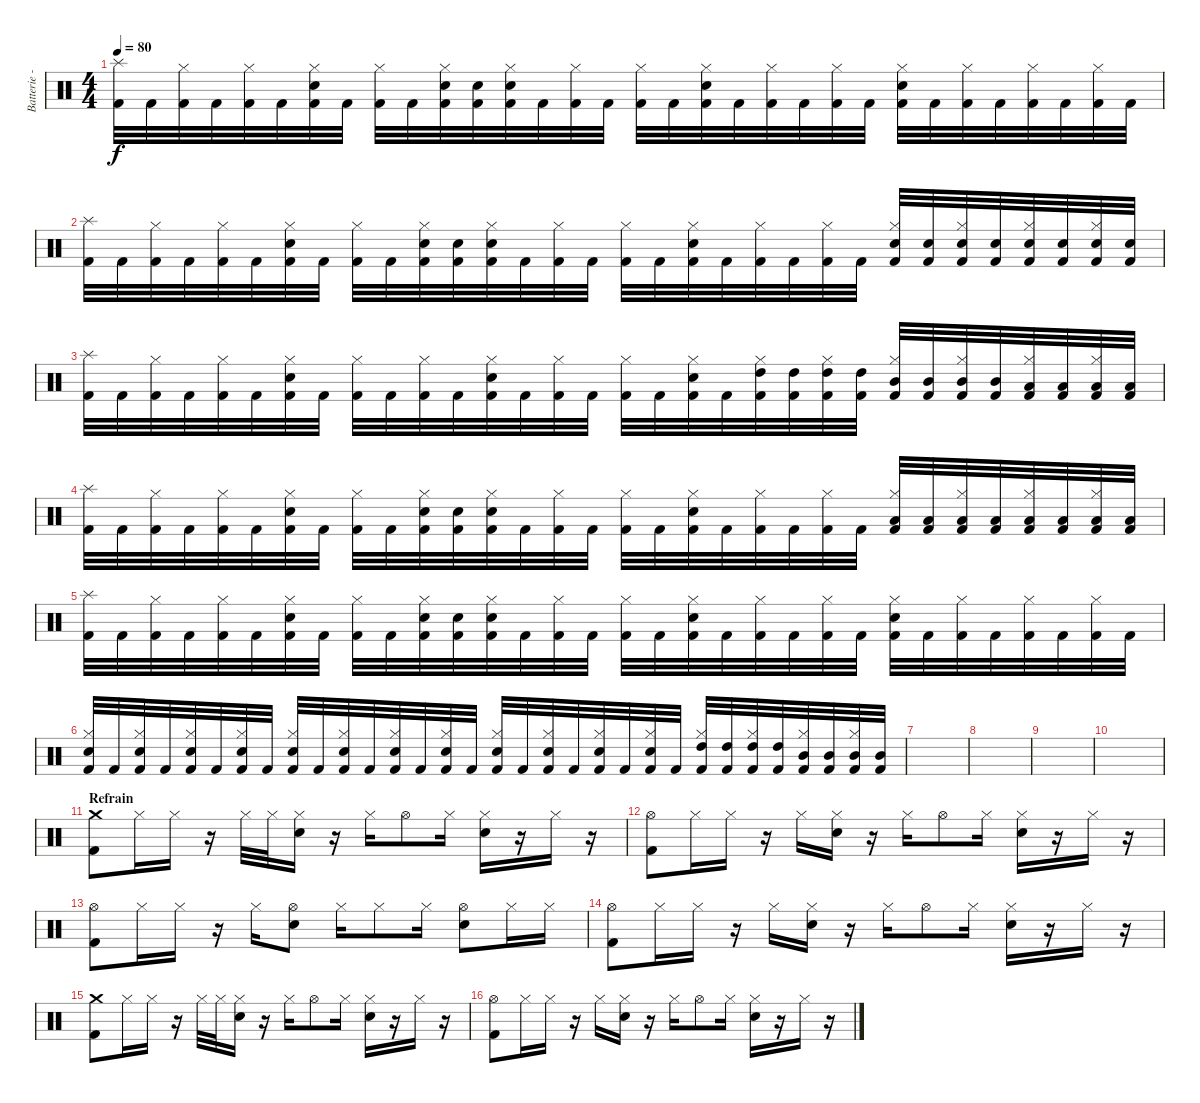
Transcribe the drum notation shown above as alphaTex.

\track ("Batterie - François" "Batterie -") {instrument percussion}
\staff {score}
\articulation defaults
\ts (4 4)
\tempo 80
\clef neutral
\ks c
("Splash (hit)" "Kick (hit) 2").32{dy f} "Kick (hit) 2".32 ("Hi-Hat (closed)" "Kick (hit) 2").32 "Kick (hit) 2".32 ("Hi-Hat (closed)" "Kick (hit) 2").32 "Kick (hit) 2".32 ("Hi-Hat (closed)" "Electric Snare (hit)" "Kick (hit) 2").32 "Kick (hit) 2".32 ("Hi-Hat (closed)" "Kick (hit) 2").32 "Kick (hit) 2".32 ("Hi-Hat (closed)" "Electric Snare (hit)" "Kick (hit) 2").32 ("Electric Snare (hit)" "Kick (hit) 2").32 ("Hi-Hat (closed)" "Electric Snare (hit)" "Kick (hit) 2").32 "Kick (hit) 2".32 ("Hi-Hat (closed)" "Kick (hit) 2").32 "Kick (hit) 2".32 ("Hi-Hat (closed)" "Kick (hit) 2").32 "Kick (hit) 2".32 ("Hi-Hat (closed)" "Electric Snare (hit)" "Kick (hit) 2").32 "Kick (hit) 2".32 ("Hi-Hat (closed)" "Kick (hit) 2").32 "Kick (hit) 2".32 ("Hi-Hat (closed)" "Kick (hit) 2").32 "Kick (hit) 2".32 ("Hi-Hat (closed)" "Electric Snare (hit)" "Kick (hit) 2").32 "Kick (hit) 2".32 ("Hi-Hat (closed)" "Kick (hit) 2").32 "Kick (hit) 2".32 ("Hi-Hat (closed)" "Kick (hit) 2").32 "Kick (hit) 2".32 ("Hi-Hat (closed)" "Kick (hit) 2").32 "Kick (hit) 2".32 |
("Splash (hit)" "Kick (hit) 2").32 "Kick (hit) 2".32 ("Hi-Hat (closed)" "Kick (hit) 2").32 "Kick (hit) 2".32 ("Hi-Hat (closed)" "Kick (hit) 2").32 "Kick (hit) 2".32 ("Hi-Hat (closed)" "Electric Snare (hit)" "Kick (hit) 2").32 "Kick (hit) 2".32 ("Hi-Hat (closed)" "Kick (hit) 2").32 "Kick (hit) 2".32 ("Hi-Hat (closed)" "Electric Snare (hit)" "Kick (hit) 2").32 ("Electric Snare (hit)" "Kick (hit) 2").32 ("Hi-Hat (closed)" "Electric Snare (hit)" "Kick (hit) 2").32 "Kick (hit) 2".32 ("Hi-Hat (closed)" "Kick (hit) 2").32 "Kick (hit) 2".32 ("Hi-Hat (closed)" "Kick (hit) 2").32 "Kick (hit) 2".32 ("Hi-Hat (closed)" "Electric Snare (hit)" "Kick (hit) 2").32 "Kick (hit) 2".32 ("Hi-Hat (closed)" "Kick (hit) 2").32 "Kick (hit) 2".32 ("Hi-Hat (closed)" "Kick (hit) 2").32 "Kick (hit) 2".32 ("Hi-Hat (closed)" "Electric Snare (hit)" "Kick (hit) 2").32 ("Electric Snare (hit)" "Kick (hit) 2").32 ("Hi-Hat (closed)" "Electric Snare (hit)" "Kick (hit) 2").32 ("Electric Snare (hit)" "Kick (hit) 2").32 ("Hi-Hat (closed)" "Electric Snare (hit)" "Kick (hit) 2").32 ("Electric Snare (hit)" "Kick (hit) 2").32 ("Hi-Hat (closed)" "Electric Snare (hit)" "Kick (hit) 2").32 ("Electric Snare (hit)" "Kick (hit) 2").32 |
("Splash (hit)" "Kick (hit) 2").32 "Kick (hit) 2".32 ("Hi-Hat (closed)" "Kick (hit) 2").32 "Kick (hit) 2".32 ("Hi-Hat (closed)" "Kick (hit) 2").32 "Kick (hit) 2".32 ("Hi-Hat (closed)" "Electric Snare (hit)" "Kick (hit) 2").32 "Kick (hit) 2".32 ("Hi-Hat (closed)" "Kick (hit) 2").32 "Kick (hit) 2".32 ("Hi-Hat (closed)" "Kick (hit) 2").32 "Kick (hit) 2".32 ("Hi-Hat (closed)" "Electric Snare (hit)" "Kick (hit) 2").32 "Kick (hit) 2".32 ("Hi-Hat (closed)" "Kick (hit) 2").32 "Kick (hit) 2".32 ("Hi-Hat (closed)" "Kick (hit) 2").32 "Kick (hit) 2".32 ("Hi-Hat (closed)" "Electric Snare (hit)" "Kick (hit) 2").32 "Kick (hit) 2".32 ("Hi-Hat (closed)" "High Tom (hit)" "Kick (hit) 2").32 ("High Tom (hit)" "Kick (hit) 2").32 ("Hi-Hat (closed)" "High Tom (hit)" "Kick (hit) 2").32 ("High Tom (hit)" "Kick (hit) 2").32 ("Hi-Hat (closed)" "Mid Tom (hit)" "Kick (hit) 2").32 ("Mid Tom (hit)" "Kick (hit) 2").32 ("Hi-Hat (closed)" "Mid Tom (hit)" "Kick (hit) 2").32 ("Mid Tom (hit)" "Kick (hit) 2").32 ("Hi-Hat (closed)" "Low Tom (hit)" "Kick (hit) 2").32 ("Low Tom (hit)" "Kick (hit) 2").32 ("Hi-Hat (closed)" "Low Tom (hit)" "Kick (hit) 2").32 ("Low Tom (hit)" "Kick (hit) 2").32 |
("Splash (hit)" "Kick (hit) 2").32 "Kick (hit) 2".32 ("Hi-Hat (closed)" "Kick (hit) 2").32 "Kick (hit) 2".32 ("Hi-Hat (closed)" "Kick (hit) 2").32 "Kick (hit) 2".32 ("Hi-Hat (closed)" "Electric Snare (hit)" "Kick (hit) 2").32 "Kick (hit) 2".32 ("Hi-Hat (closed)" "Kick (hit) 2").32 "Kick (hit) 2".32 ("Hi-Hat (closed)" "Electric Snare (hit)" "Kick (hit) 2").32 ("Electric Snare (hit)" "Kick (hit) 2").32 ("Hi-Hat (closed)" "Electric Snare (hit)" "Kick (hit) 2").32 "Kick (hit) 2".32 ("Hi-Hat (closed)" "Kick (hit) 2").32 "Kick (hit) 2".32 ("Hi-Hat (closed)" "Kick (hit) 2").32 "Kick (hit) 2".32 ("Hi-Hat (closed)" "Electric Snare (hit)" "Kick (hit) 2").32 "Kick (hit) 2".32 ("Hi-Hat (closed)" "Kick (hit) 2").32 "Kick (hit) 2".32 ("Hi-Hat (closed)" "Kick (hit) 2").32 "Kick (hit) 2".32 ("Hi-Hat (closed)" "Low Tom (hit)" "Kick (hit) 2").32 ("Low Tom (hit)" "Kick (hit) 2").32 ("Hi-Hat (closed)" "Low Tom (hit)" "Kick (hit) 2").32 ("Low Tom (hit)" "Kick (hit) 2").32 ("Hi-Hat (closed)" "Low Tom (hit)" "Kick (hit) 2").32 ("Low Tom (hit)" "Kick (hit) 2").32 ("Hi-Hat (closed)" "Low Tom (hit)" "Kick (hit) 2").32 ("Low Tom (hit)" "Kick (hit) 2").32 |
("Splash (hit)" "Kick (hit) 2").32 "Kick (hit) 2".32 ("Hi-Hat (closed)" "Kick (hit) 2").32 "Kick (hit) 2".32 ("Hi-Hat (closed)" "Kick (hit) 2").32 "Kick (hit) 2".32 ("Hi-Hat (closed)" "Electric Snare (hit)" "Kick (hit) 2").32 "Kick (hit) 2".32 ("Hi-Hat (closed)" "Kick (hit) 2").32 "Kick (hit) 2".32 ("Hi-Hat (closed)" "Electric Snare (hit)" "Kick (hit) 2").32 ("Electric Snare (hit)" "Kick (hit) 2").32 ("Hi-Hat (closed)" "Electric Snare (hit)" "Kick (hit) 2").32 "Kick (hit) 2".32 ("Hi-Hat (closed)" "Kick (hit) 2").32 "Kick (hit) 2".32 ("Hi-Hat (closed)" "Kick (hit) 2").32 "Kick (hit) 2".32 ("Hi-Hat (closed)" "Electric Snare (hit)" "Kick (hit) 2").32 "Kick (hit) 2".32 ("Hi-Hat (closed)" "Kick (hit) 2").32 "Kick (hit) 2".32 ("Hi-Hat (closed)" "Kick (hit) 2").32 "Kick (hit) 2".32 ("Hi-Hat (closed)" "Electric Snare (hit)" "Kick (hit) 2").32 "Kick (hit) 2".32 ("Hi-Hat (closed)" "Kick (hit) 2").32 "Kick (hit) 2".32 ("Hi-Hat (closed)" "Kick (hit) 2").32 "Kick (hit) 2".32 ("Hi-Hat (closed)" "Kick (hit) 2").32 "Kick (hit) 2".32 |
("Hi-Hat (closed)" "Electric Snare (hit)" "Kick (hit) 2").32 "Kick (hit) 2".32 ("Hi-Hat (closed)" "Electric Snare (hit)" "Kick (hit) 2").32 "Kick (hit) 2".32 ("Hi-Hat (closed)" "Electric Snare (hit)" "Kick (hit) 2").32 "Kick (hit) 2".32 ("Hi-Hat (closed)" "Electric Snare (hit)" "Kick (hit) 2").32 "Kick (hit) 2".32 ("Hi-Hat (closed)" "Electric Snare (hit)" "Kick (hit) 2").32 "Kick (hit) 2".32 ("Hi-Hat (closed)" "Electric Snare (hit)" "Kick (hit) 2").32 "Kick (hit) 2".32 ("Hi-Hat (closed)" "Electric Snare (hit)" "Kick (hit) 2").32 "Kick (hit) 2".32 ("Hi-Hat (closed)" "Electric Snare (hit)" "Kick (hit) 2").32 "Kick (hit) 2".32 ("Hi-Hat (closed)" "Electric Snare (hit)" "Kick (hit) 2").32 "Kick (hit) 2".32 ("Hi-Hat (closed)" "Electric Snare (hit)" "Kick (hit) 2").32 "Kick (hit) 2".32 ("Hi-Hat (closed)" "Electric Snare (hit)" "Kick (hit) 2").32 "Kick (hit) 2".32 ("Hi-Hat (closed)" "Electric Snare (hit)" "Kick (hit) 2").32 "Kick (hit) 2".32 ("Hi-Hat (closed)" "High Tom (hit)" "Kick (hit) 2").32 ("High Tom (hit)" "Kick (hit) 2").32 ("Hi-Hat (closed)" "High Tom (hit)" "Kick (hit) 2").32 ("High Tom (hit)" "Kick (hit) 2").32 ("Hi-Hat (closed)" "Mid Tom (hit)" "Kick (hit) 2").32 ("Mid Tom (hit)" "Kick (hit) 2").32 ("Hi-Hat (closed)" "Mid Tom (hit)" "Kick (hit) 2").32 ("Mid Tom (hit)" "Kick (hit) 2").32 |
|
|
|
|
\section ("" "Refrain")
("Crash medium (hit)" "Kick (hit) 2").8 "Hi-Hat (closed)".16 "Hi-Hat (closed)".16 r.16 "Hi-Hat (closed)".32 "Hi-Hat (closed)".32 ("Hi-Hat (closed)" "Electric Snare (hit)").16 r.16 "Hi-Hat (closed)".16 "Hi-Hat (open)".8 "Hi-Hat (closed)".16 ("Hi-Hat (closed)" "Electric Snare (hit)").16 r.16 "Hi-Hat (closed)".16 r.16 |
("Hi-Hat (open)" "Kick (hit) 2").8 "Hi-Hat (closed)".16 "Hi-Hat (closed)".16 r.16 "Hi-Hat (closed)".16 ("Hi-Hat (closed)" "Electric Snare (hit)").16 r.16 "Hi-Hat (closed)".16 "Hi-Hat (open)".8 "Hi-Hat (closed)".16 ("Hi-Hat (closed)" "Electric Snare (hit)").16 r.16 "Hi-Hat (closed)".16 r.16 |
("Hi-Hat (open)" "Kick (hit) 2").8 "Hi-Hat (closed)".16 "Hi-Hat (closed)".16 r.16 "Hi-Hat (closed)".16 ("Hi-Hat (open)" "Electric Snare (hit)").8 "Hi-Hat (closed)".16 "Hi-Hat (closed)".8 "Hi-Hat (closed)".16 ("Hi-Hat (open)" "Electric Snare (hit)").8 "Hi-Hat (closed)".16 "Hi-Hat (closed)".16 |
("Hi-Hat (open)" "Kick (hit) 2").8 "Hi-Hat (closed)".16 "Hi-Hat (closed)".16 r.16 "Hi-Hat (closed)".16 ("Hi-Hat (closed)" "Electric Snare (hit)").16 r.16 "Hi-Hat (closed)".16 "Hi-Hat (open)".8 "Hi-Hat (closed)".16 ("Hi-Hat (closed)" "Electric Snare (hit)").16 r.16 "Hi-Hat (closed)".16 r.16 |
("Crash medium (hit)" "Kick (hit) 2").8 "Hi-Hat (closed)".16 "Hi-Hat (closed)".16 r.16 "Hi-Hat (closed)".32 "Hi-Hat (closed)".32 ("Hi-Hat (closed)" "Electric Snare (hit)").16 r.16 "Hi-Hat (closed)".16 "Hi-Hat (open)".8 "Hi-Hat (closed)".16 ("Hi-Hat (closed)" "Electric Snare (hit)").16 r.16 "Hi-Hat (closed)".16 r.16 |
("Hi-Hat (open)" "Kick (hit) 2").8 "Hi-Hat (closed)".16 "Hi-Hat (closed)".16 r.16 "Hi-Hat (closed)".16 ("Hi-Hat (closed)" "Electric Snare (hit)").16 r.16 "Hi-Hat (closed)".16 "Hi-Hat (open)".8 "Hi-Hat (closed)".16 ("Hi-Hat (closed)" "Electric Snare (hit)").16 r.16 "Hi-Hat (closed)".16 r.16
